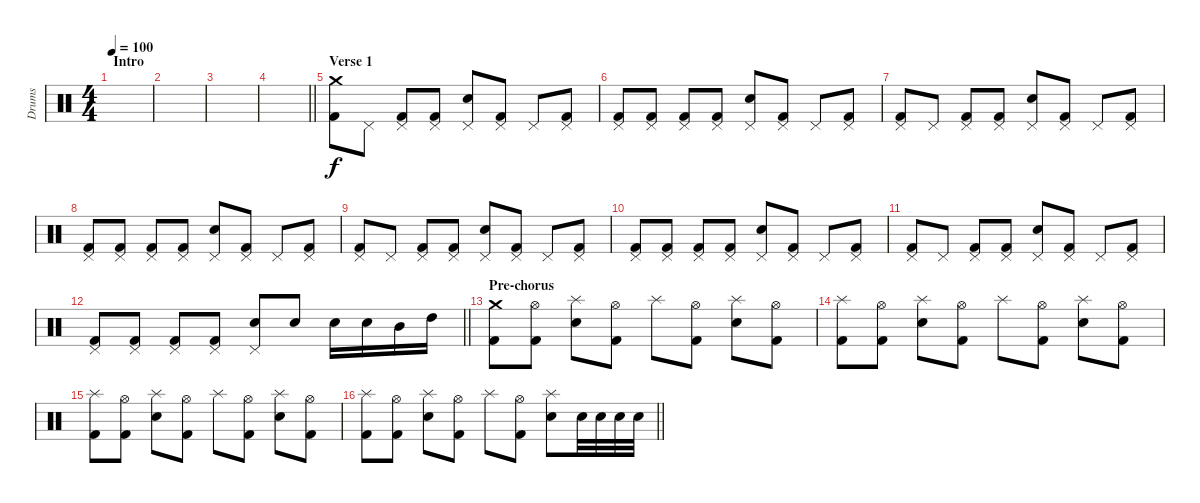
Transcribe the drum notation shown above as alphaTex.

\track ("Drums" "Drums") {instrument percussion}
\staff {score}
\articulation defaults
\ts (4 4)
\section ("" "Intro")
\tempo 100
\clef neutral
\ks c
|
|
|
\barLineRight lightlight
|
\section ("" "Verse 1")
("Crash medium (hit)" "Kick (hit) 2").8 "Pedal Hi-Hat (hit)".8 ("Pedal Hi-Hat (hit)" "Kick (hit) 2").8 ("Pedal Hi-Hat (hit)" "Kick (hit) 2").8 ("Pedal Hi-Hat (hit)" "Electric Snare (hit)").8 ("Pedal Hi-Hat (hit)" "Kick (hit) 2").8 "Pedal Hi-Hat (hit)".8 ("Pedal Hi-Hat (hit)" "Kick (hit) 2").8 |
("Pedal Hi-Hat (hit)" "Kick (hit) 2").8 ("Pedal Hi-Hat (hit)" "Kick (hit) 2").8 ("Pedal Hi-Hat (hit)" "Kick (hit) 2").8 ("Pedal Hi-Hat (hit)" "Kick (hit) 2").8 ("Pedal Hi-Hat (hit)" "Electric Snare (hit)").8 ("Pedal Hi-Hat (hit)" "Kick (hit) 2").8 "Pedal Hi-Hat (hit)".8 ("Pedal Hi-Hat (hit)" "Kick (hit) 2").8 |
("Pedal Hi-Hat (hit)" "Kick (hit) 2").8 "Pedal Hi-Hat (hit)".8 ("Pedal Hi-Hat (hit)" "Kick (hit) 2").8 ("Pedal Hi-Hat (hit)" "Kick (hit) 2").8 ("Pedal Hi-Hat (hit)" "Electric Snare (hit)").8 ("Pedal Hi-Hat (hit)" "Kick (hit) 2").8 "Pedal Hi-Hat (hit)".8 ("Pedal Hi-Hat (hit)" "Kick (hit) 2").8 |
("Pedal Hi-Hat (hit)" "Kick (hit) 2").8 ("Pedal Hi-Hat (hit)" "Kick (hit) 2").8 ("Pedal Hi-Hat (hit)" "Kick (hit) 2").8 ("Pedal Hi-Hat (hit)" "Kick (hit) 2").8 ("Pedal Hi-Hat (hit)" "Electric Snare (hit)").8 ("Pedal Hi-Hat (hit)" "Kick (hit) 2").8 "Pedal Hi-Hat (hit)".8 ("Pedal Hi-Hat (hit)" "Kick (hit) 2").8 |
("Pedal Hi-Hat (hit)" "Kick (hit) 2").8 "Pedal Hi-Hat (hit)".8 ("Pedal Hi-Hat (hit)" "Kick (hit) 2").8 ("Pedal Hi-Hat (hit)" "Kick (hit) 2").8 ("Pedal Hi-Hat (hit)" "Electric Snare (hit)").8 ("Pedal Hi-Hat (hit)" "Kick (hit) 2").8 "Pedal Hi-Hat (hit)".8 ("Pedal Hi-Hat (hit)" "Kick (hit) 2").8 |
("Pedal Hi-Hat (hit)" "Kick (hit) 2").8 ("Pedal Hi-Hat (hit)" "Kick (hit) 2").8 ("Pedal Hi-Hat (hit)" "Kick (hit) 2").8 ("Pedal Hi-Hat (hit)" "Kick (hit) 2").8 ("Pedal Hi-Hat (hit)" "Electric Snare (hit)").8 ("Pedal Hi-Hat (hit)" "Kick (hit) 2").8 "Pedal Hi-Hat (hit)".8 ("Pedal Hi-Hat (hit)" "Kick (hit) 2").8 |
("Pedal Hi-Hat (hit)" "Kick (hit) 2").8 "Pedal Hi-Hat (hit)".8 ("Pedal Hi-Hat (hit)" "Kick (hit) 2").8 ("Pedal Hi-Hat (hit)" "Kick (hit) 2").8 ("Pedal Hi-Hat (hit)" "Electric Snare (hit)").8 ("Pedal Hi-Hat (hit)" "Kick (hit) 2").8 "Pedal Hi-Hat (hit)".8 ("Pedal Hi-Hat (hit)" "Kick (hit) 2").8 |
\barLineRight lightlight
("Pedal Hi-Hat (hit)" "Kick (hit) 2").8 ("Pedal Hi-Hat (hit)" "Kick (hit) 2").8 ("Pedal Hi-Hat (hit)" "Kick (hit) 2").8 ("Pedal Hi-Hat (hit)" "Kick (hit) 2").8 ("Pedal Hi-Hat (hit)" "Electric Snare (hit)").8 "Electric Snare (hit)".8 "Electric Snare (hit)".16 "Electric Snare (hit)".16 "Mid Tom (hit)".16 "High Tom (hit)".16 |
\section ("" "Pre-chorus")
("Crash medium (hit)" "Kick (hit) 2").8 ("Hi-Hat (open)" "Kick (hit) 2").8 ("Splash (hit)" "Electric Snare (hit)").8 ("Hi-Hat (open)" "Kick (hit) 2").8 "Splash (hit)".8 ("Hi-Hat (open)" "Kick (hit) 2").8 ("Splash (hit)" "Electric Snare (hit)").8 ("Hi-Hat (open)" "Kick (hit) 2").8 |
("Splash (hit)" "Kick (hit) 2").8 ("Hi-Hat (open)" "Kick (hit) 2").8 ("Splash (hit)" "Electric Snare (hit)").8 ("Hi-Hat (open)" "Kick (hit) 2").8 "Splash (hit)".8 ("Hi-Hat (open)" "Kick (hit) 2").8 ("Splash (hit)" "Electric Snare (hit)").8 ("Hi-Hat (open)" "Kick (hit) 2").8 |
("Splash (hit)" "Kick (hit) 2").8 ("Hi-Hat (open)" "Kick (hit) 2").8 ("Splash (hit)" "Electric Snare (hit)").8 ("Hi-Hat (open)" "Kick (hit) 2").8 "Splash (hit)".8 ("Hi-Hat (open)" "Kick (hit) 2").8 ("Splash (hit)" "Electric Snare (hit)").8 ("Hi-Hat (open)" "Kick (hit) 2").8 |
\barLineRight lightlight
("Splash (hit)" "Kick (hit) 2").8 ("Hi-Hat (open)" "Kick (hit) 2").8 ("Splash (hit)" "Electric Snare (hit)").8 ("Hi-Hat (open)" "Kick (hit) 2").8 "Splash (hit)".8 ("Hi-Hat (open)" "Kick (hit) 2").8 ("Splash (hit)" "Electric Snare (hit)").8 "Electric Snare (hit)".32 "Electric Snare (hit)".32 "Electric Snare (hit)".32 "Electric Snare (hit)".32
